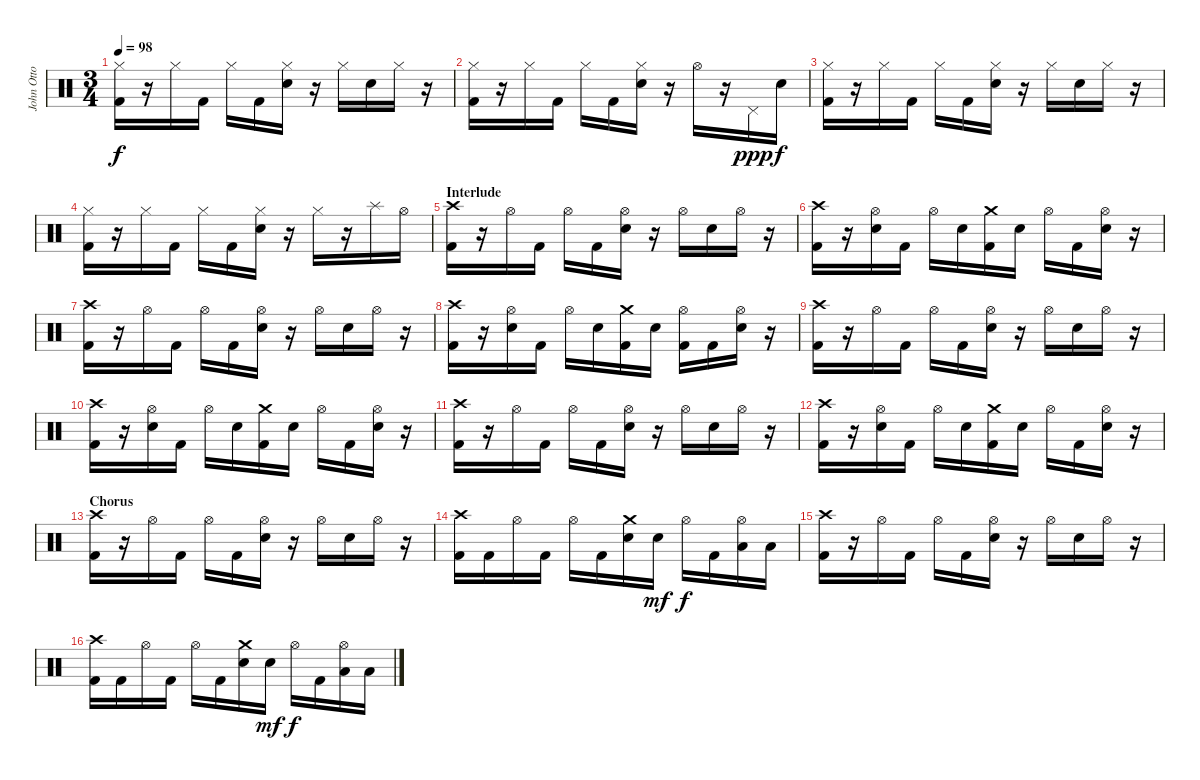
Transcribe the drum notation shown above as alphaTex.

\track ("John Otto - Drums" "John Otto ") {instrument percussion}
\staff {score}
\articulation defaults
\ts (3 4)
\tempo 98
\clef neutral
\ks c
("Hi-Hat (closed)" "Kick (hit) 2").16{dy f} r.16 "Hi-Hat (closed)".16 "Kick (hit) 2".16 "Hi-Hat (closed)".16 "Kick (hit) 2".16 ("Hi-Hat (closed)" "Electric Snare (hit)").16 r.16 "Hi-Hat (closed)".16 "Electric Snare (hit)".16 "Hi-Hat (closed)".16 r.16 |
("Hi-Hat (closed)" "Kick (hit) 2").16 r.16 "Hi-Hat (closed)".16 "Kick (hit) 2".16 "Hi-Hat (closed)".16 "Kick (hit) 2".16 ("Hi-Hat (closed)" "Electric Snare (hit)").16 r.16 "Hi-Hat (open)".16 r.16 "Pedal Hi-Hat (hit)".16{dy ppp} "Electric Snare (hit)".16{dy f} |
("Hi-Hat (closed)" "Kick (hit) 2").16 r.16 "Hi-Hat (closed)".16 "Kick (hit) 2".16 "Hi-Hat (closed)".16 "Kick (hit) 2".16 ("Hi-Hat (closed)" "Electric Snare (hit)").16 r.16 "Hi-Hat (closed)".16 "Electric Snare (hit)".16 "Hi-Hat (closed)".16 r.16 |
("Hi-Hat (closed)" "Kick (hit) 2").16 r.16 "Hi-Hat (closed)".16 "Kick (hit) 2".16 "Hi-Hat (closed)".16 "Kick (hit) 2".16 ("Hi-Hat (closed)" "Electric Snare (hit)").16 r.16 "Hi-Hat (closed)".16 r.16 "Splash (hit)".16 "Hi-Hat (open)".16 |
\section ("" "Interlude")
("Crash high (hit)" "Kick (hit) 2").16 r.16 "Hi-Hat (open)".16 "Kick (hit) 2".16 "Hi-Hat (open)".16 "Kick (hit) 2".16 ("Hi-Hat (open)" "Electric Snare (hit)").16 r.16 "Hi-Hat (open)".16 "Electric Snare (hit)".16 "Hi-Hat (open)".16 r.16 |
("Crash high (hit)" "Kick (hit) 2").16 r.16 ("Hi-Hat (open)" "Electric Snare (hit)").16 "Kick (hit) 2".16 "Hi-Hat (open)".16 "Electric Snare (hit)".16 ("Crash medium (hit)" "Kick (hit) 2").16 "Electric Snare (hit)".16 "Hi-Hat (open)".16 "Kick (hit) 2".16 ("Hi-Hat (open)" "Electric Snare (hit)").16 r.16 |
("Crash high (hit)" "Kick (hit) 2").16 r.16 "Hi-Hat (open)".16 "Kick (hit) 2".16 "Hi-Hat (open)".16 "Kick (hit) 2".16 ("Hi-Hat (open)" "Electric Snare (hit)").16 r.16 "Hi-Hat (open)".16 "Electric Snare (hit)".16 "Hi-Hat (open)".16 r.16 |
("Crash high (hit)" "Kick (hit) 2").16 r.16 ("Hi-Hat (open)" "Electric Snare (hit)").16 "Kick (hit) 2".16 "Hi-Hat (open)".16 "Electric Snare (hit)".16 ("Crash medium (hit)" "Kick (hit) 2").16 "Electric Snare (hit)".16 ("Hi-Hat (open)" "Kick (hit) 2").16 "Kick (hit) 2".16 ("Hi-Hat (open)" "Electric Snare (hit)").16 r.16 |
("Crash high (hit)" "Kick (hit) 2").16 r.16 "Hi-Hat (open)".16 "Kick (hit) 2".16 "Hi-Hat (open)".16 "Kick (hit) 2".16 ("Hi-Hat (open)" "Electric Snare (hit)").16 r.16 "Hi-Hat (open)".16 "Electric Snare (hit)".16 "Hi-Hat (open)".16 r.16 |
("Crash high (hit)" "Kick (hit) 2").16 r.16 ("Hi-Hat (open)" "Electric Snare (hit)").16 "Kick (hit) 2".16 "Hi-Hat (open)".16 "Electric Snare (hit)".16 ("Crash medium (hit)" "Kick (hit) 2").16 "Electric Snare (hit)".16 "Hi-Hat (open)".16 "Kick (hit) 2".16 ("Hi-Hat (open)" "Electric Snare (hit)").16 r.16 |
("Crash high (hit)" "Kick (hit) 2").16 r.16 "Hi-Hat (open)".16 "Kick (hit) 2".16 "Hi-Hat (open)".16 "Kick (hit) 2".16 ("Hi-Hat (open)" "Electric Snare (hit)").16 r.16 "Hi-Hat (open)".16 "Electric Snare (hit)".16 "Hi-Hat (open)".16 r.16 |
("Crash high (hit)" "Kick (hit) 2").16 r.16 ("Hi-Hat (open)" "Electric Snare (hit)").16 "Kick (hit) 2".16 "Hi-Hat (open)".16 "Electric Snare (hit)".16 ("Crash medium (hit)" "Kick (hit) 2").16 "Electric Snare (hit)".16 "Hi-Hat (open)".16 "Kick (hit) 2".16 ("Hi-Hat (open)" "Electric Snare (hit)").16 r.16 |
\section ("" "Chorus")
("Crash high (hit)" "Kick (hit) 2").16 r.16 "Hi-Hat (open)".16 "Kick (hit) 2".16 "Hi-Hat (open)".16 "Kick (hit) 2".16 ("Hi-Hat (open)" "Electric Snare (hit)").16 r.16 "Hi-Hat (open)".16 "Electric Snare (hit)".16 "Hi-Hat (open)".16 r.16 |
("Crash high (hit)" "Kick (hit) 2").16 "Kick (hit) 2".16 "Hi-Hat (open)".16 "Kick (hit) 2".16 "Hi-Hat (open)".16 "Kick (hit) 2".16 ("Crash medium (hit)" "Electric Snare (hit)").16 "Electric Snare (hit)".16{dy mf} "Hi-Hat (open)".16{dy f} "Kick (hit) 2".16 ("Hi-Hat (open)" "Low Tom (hit)").16 "Low Tom (hit)".16 |
("Crash high (hit)" "Kick (hit) 2").16 r.16 "Hi-Hat (open)".16 "Kick (hit) 2".16 "Hi-Hat (open)".16 "Kick (hit) 2".16 ("Hi-Hat (open)" "Electric Snare (hit)").16 r.16 "Hi-Hat (open)".16 "Electric Snare (hit)".16 "Hi-Hat (open)".16 r.16 |
("Crash high (hit)" "Kick (hit) 2").16 "Kick (hit) 2".16 "Hi-Hat (open)".16 "Kick (hit) 2".16 "Hi-Hat (open)".16 "Kick (hit) 2".16 ("Crash medium (hit)" "Electric Snare (hit)").16 "Electric Snare (hit)".16{dy mf} "Hi-Hat (open)".16{dy f} "Kick (hit) 2".16 ("Hi-Hat (open)" "Low Tom (hit)").16 "Low Tom (hit)".16
